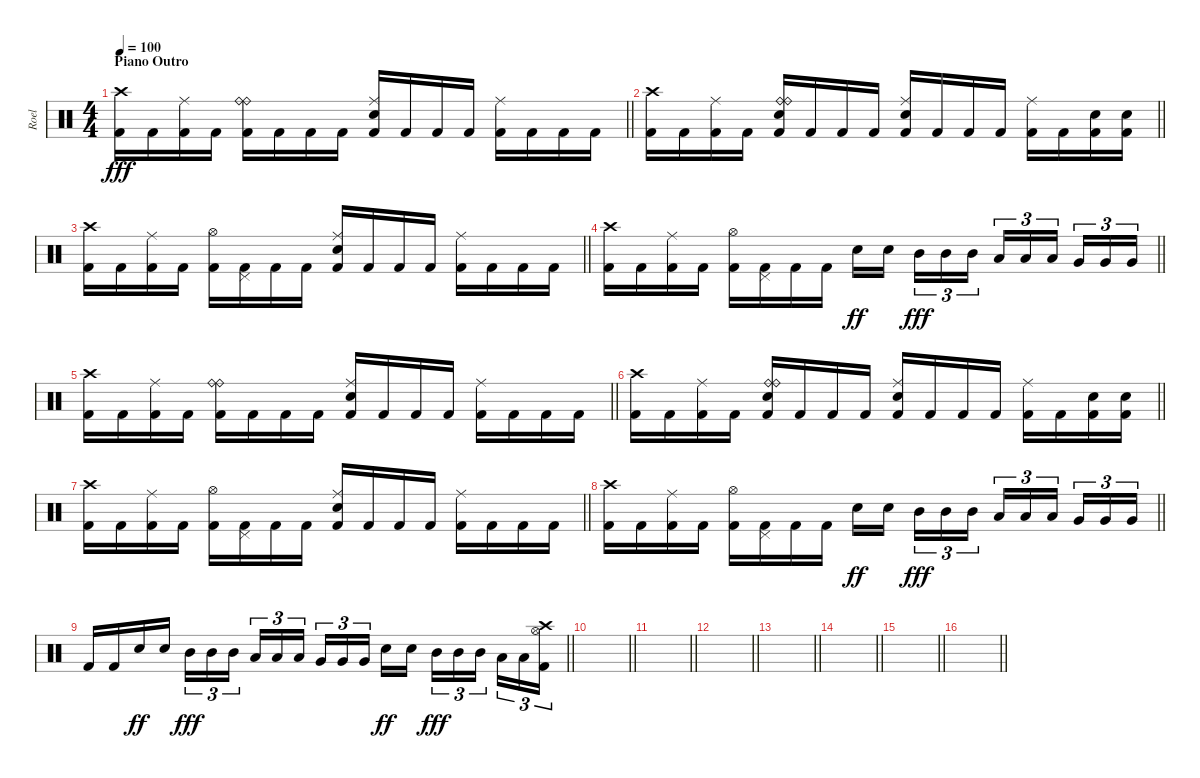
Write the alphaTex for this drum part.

\track ("Roel" "Roel") {instrument percussion}
\staff {score}
\articulation defaults
\ts (4 4)
\section ("" "Piano Outro")
\tempo 100
\clef neutral
\barLineRight lightlight
\ks c
("Crash high (hit)" "Kick (hit) 2").16{dy fff} "Kick (hit) 2".16 ("Ride (middle)" "Kick (hit) 2").16 "Kick (hit) 2".16 ("Ride (bell)" "Ride (bell)" "Kick (hit) 2").16 "Kick (hit) 2".16 "Kick (hit) 2".16 "Kick (hit) 2".16 ("Ride (middle)" "Snare (hit) 2" "Kick (hit) 2").16 "Kick (hit) 2".16 "Kick (hit) 2".16 "Kick (hit) 2".16 ("Ride (middle)" "Kick (hit) 2").16 "Kick (hit) 2".16 "Kick (hit) 2".16 "Kick (hit) 2".16 |
\barLineRight lightlight
("Crash high (hit)" "Kick (hit) 2").16 "Kick (hit) 2".16 ("Ride (middle)" "Kick (hit) 2").16 "Kick (hit) 2".16 ("Ride (bell)" "Ride (bell)" "Snare (hit) 2" "Kick (hit) 2").16 "Kick (hit) 2".16 "Kick (hit) 2".16 "Kick (hit) 2".16 ("Ride (middle)" "Snare (hit) 2" "Kick (hit) 2").16 "Kick (hit) 2".16 "Kick (hit) 2".16 "Kick (hit) 2".16 ("Ride (middle)" "Kick (hit) 2").16 "Kick (hit) 2".16 ("Snare (hit) 2" "Kick (hit) 2").16 ("Snare (hit) 2" "Kick (hit) 2").16 |
\barLineRight lightlight
("Crash high (hit)" "Kick (hit) 2").16 "Kick (hit) 2".16 ("Ride (middle)" "Kick (hit) 2").16 "Kick (hit) 2".16 ("Hi-Hat (open)" "Kick (hit) 2").16 ("Pedal Hi-Hat (hit)" "Kick (hit) 2").16 "Kick (hit) 2".16 "Kick (hit) 2".16 ("Ride (middle)" "Snare (hit) 2" "Kick (hit) 2").16 "Kick (hit) 2".16 "Kick (hit) 2".16 "Kick (hit) 2".16 ("Ride (middle)" "Kick (hit) 2").16 "Kick (hit) 2".16 "Kick (hit) 2".16 "Kick (hit) 2".16 |
\barLineRight lightlight
("Crash high (hit)" "Kick (hit) 2").16 "Kick (hit) 2".16 ("Ride (middle)" "Kick (hit) 2").16 "Kick (hit) 2".16 ("Hi-Hat (open)" "Kick (hit) 2").16 ("Pedal Hi-Hat (hit)" "Kick (hit) 2").16 "Kick (hit) 2".16 "Kick (hit) 2".16 "Snare (hit) 2".16{dy ff} "Snare (hit) 2".16{beam splitsecondary} "Mid Tom (hit)".16{tu (3 2) dy fff} "Mid Tom (hit)".16{tu (3 2)} "Mid Tom (hit)".16{tu (3 2)} "Low Tom (hit)".16{tu (3 2)} "Low Tom (hit)".16{tu (3 2)} "Low Tom (hit)".16{tu (3 2) beam splitsecondary} "Very Low Tom (hit)".16{tu (3 2)} "Very Low Tom (hit)".16{tu (3 2)} "Very Low Tom (hit)".16{tu (3 2)} |
\barLineRight lightlight
("Crash high (hit)" "Kick (hit) 2").16 "Kick (hit) 2".16 ("Ride (middle)" "Kick (hit) 2").16 "Kick (hit) 2".16 ("Ride (bell)" "Ride (bell)" "Kick (hit) 2").16 "Kick (hit) 2".16 "Kick (hit) 2".16 "Kick (hit) 2".16 ("Ride (middle)" "Snare (hit) 2" "Kick (hit) 2").16 "Kick (hit) 2".16 "Kick (hit) 2".16 "Kick (hit) 2".16 ("Ride (middle)" "Kick (hit) 2").16 "Kick (hit) 2".16 "Kick (hit) 2".16 "Kick (hit) 2".16 |
\barLineRight lightlight
("Crash high (hit)" "Kick (hit) 2").16 "Kick (hit) 2".16 ("Ride (middle)" "Kick (hit) 2").16 "Kick (hit) 2".16 ("Ride (bell)" "Ride (bell)" "Snare (hit) 2" "Kick (hit) 2").16 "Kick (hit) 2".16 "Kick (hit) 2".16 "Kick (hit) 2".16 ("Ride (middle)" "Snare (hit) 2" "Kick (hit) 2").16 "Kick (hit) 2".16 "Kick (hit) 2".16 "Kick (hit) 2".16 ("Ride (middle)" "Kick (hit) 2").16 "Kick (hit) 2".16 ("Snare (hit) 2" "Kick (hit) 2").16 ("Snare (hit) 2" "Kick (hit) 2").16 |
\barLineRight lightlight
("Crash high (hit)" "Kick (hit) 2").16 "Kick (hit) 2".16 ("Ride (middle)" "Kick (hit) 2").16 "Kick (hit) 2".16 ("Hi-Hat (open)" "Kick (hit) 2").16 ("Pedal Hi-Hat (hit)" "Kick (hit) 2").16 "Kick (hit) 2".16 "Kick (hit) 2".16 ("Ride (middle)" "Snare (hit) 2" "Kick (hit) 2").16 "Kick (hit) 2".16 "Kick (hit) 2".16 "Kick (hit) 2".16 ("Ride (middle)" "Kick (hit) 2").16 "Kick (hit) 2".16 "Kick (hit) 2".16 "Kick (hit) 2".16 |
\barLineRight lightlight
("Crash high (hit)" "Kick (hit) 2").16 "Kick (hit) 2".16 ("Ride (middle)" "Kick (hit) 2").16 "Kick (hit) 2".16 ("Hi-Hat (open)" "Kick (hit) 2").16 ("Pedal Hi-Hat (hit)" "Kick (hit) 2").16 "Kick (hit) 2".16 "Kick (hit) 2".16 "Snare (hit) 2".16{dy ff} "Snare (hit) 2".16{beam splitsecondary} "Mid Tom (hit)".16{tu (3 2) dy fff} "Mid Tom (hit)".16{tu (3 2)} "Mid Tom (hit)".16{tu (3 2)} "Low Tom (hit)".16{tu (3 2)} "Low Tom (hit)".16{tu (3 2)} "Low Tom (hit)".16{tu (3 2) beam splitsecondary} "Very Low Tom (hit)".16{tu (3 2)} "Very Low Tom (hit)".16{tu (3 2)} "Very Low Tom (hit)".16{tu (3 2)} |
\barLineRight lightlight "Kick (hit) 2".16 "Kick (hit) 2".16 "Snare (hit) 2".16{dy ff} "Snare (hit) 2".16 "Mid Tom (hit)".16{tu (3 2) dy fff} "Mid Tom (hit)".16{tu (3 2)} "Mid Tom (hit)".16{tu (3 2) beam splitsecondary} "Low Tom (hit)".16{tu (3 2)} "Low Tom (hit)".16{tu (3 2)} "Low Tom (hit)".16{tu (3 2)} "Very Low Tom (hit)".16{tu (3 2)} "Very Low Tom (hit)".16{tu (3 2)} "Very Low Tom (hit)".16{tu (3 2) beam splitsecondary} "Snare (hit) 2".16{dy ff} "Snare (hit) 2".16 "Mid Tom (hit)".16{tu (3 2) dy fff} "Mid Tom (hit)".16{tu (3 2)} "Mid Tom (hit)".16{tu (3 2) beam splitsecondary} "Low Tom (hit)".16{tu (3 2)} "Low Tom (hit)".16{tu (3 2)}
("Crash high (hit)" "Hi-Hat (open)" "Kick (hit) 2").16{tu (3 2)} |
\barLineRight lightlight
|
\barLineRight lightlight
|
\barLineRight lightlight
|
\barLineRight lightlight
|
\barLineRight lightlight
|
\barLineRight lightlight
|
\barLineRight lightlight
